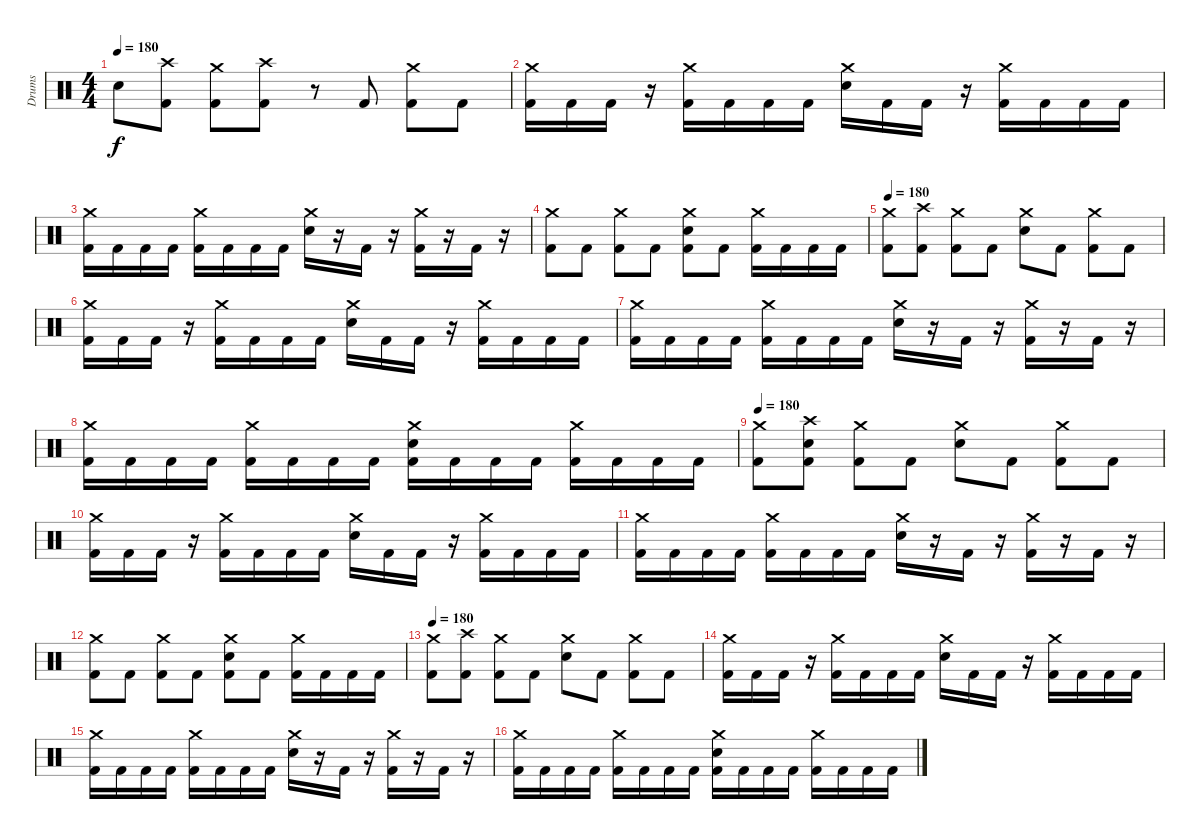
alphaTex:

\track ("Drums" "Drums") {instrument percussion}
\staff {score}
\articulation defaults
\ts (4 4)
\tempo 180
\clef neutral
\ks c "Snare (hit) 2".8{dy f}
("Crash high (hit)" "Kick (hit) 2").8 ("Crash medium (hit)" "Kick (hit) 2").8 ("Crash high (hit)" "Kick (hit) 2").8 r.8 "Kick (hit) 2".8 ("Crash medium (hit)" "Kick (hit) 2").8 "Kick (hit) 2".8 |
("Crash medium (hit)" "Kick (hit) 2").16 "Kick (hit) 2".16 "Kick (hit) 2".16 r.16 ("Crash medium (hit)" "Kick (hit) 2").16 "Kick (hit) 2".16 "Kick (hit) 2".16 "Kick (hit) 2".16 ("Crash medium (hit)" "Snare (hit) 2").16 "Kick (hit) 2".16 "Kick (hit) 2".16 r.16 ("Crash medium (hit)" "Kick (hit) 2").16 "Kick (hit) 2".16 "Kick (hit) 2".16 "Kick (hit) 2".16 |
("Crash medium (hit)" "Kick (hit) 2").16 "Kick (hit) 2".16 "Kick (hit) 2".16 "Kick (hit) 2".16 ("Crash medium (hit)" "Kick (hit) 2").16 "Kick (hit) 2".16 "Kick (hit) 2".16 "Kick (hit) 2".16 ("Crash medium (hit)" "Snare (hit) 2").16 r.16 "Kick (hit) 2".16 r.16 ("Crash medium (hit)" "Kick (hit) 2").16 r.16 "Kick (hit) 2".16 r.16 |
("Crash medium (hit)" "Kick (hit) 2").8 "Kick (hit) 2".8 ("Crash medium (hit)" "Kick (hit) 2").8 "Kick (hit) 2".8 ("Crash medium (hit)" "Snare (hit) 2" "Kick (hit) 2").8 "Kick (hit) 2".8 ("Crash medium (hit)" "Kick (hit) 2").16 "Kick (hit) 2".16 "Kick (hit) 2".16 "Kick (hit) 2".16 |
\tempo 180
("Crash medium (hit)" "Kick (hit) 2").8 ("Crash high (hit)" "Kick (hit) 2").8 ("Crash medium (hit)" "Kick (hit) 2").8 "Kick (hit) 2".8 ("Crash medium (hit)" "Snare (hit) 2").8 "Kick (hit) 2".8 ("Crash medium (hit)" "Kick (hit) 2").8 "Kick (hit) 2".8 |
("Crash medium (hit)" "Kick (hit) 2").16 "Kick (hit) 2".16 "Kick (hit) 2".16 r.16 ("Crash medium (hit)" "Kick (hit) 2").16 "Kick (hit) 2".16 "Kick (hit) 2".16 "Kick (hit) 2".16 ("Crash medium (hit)" "Snare (hit) 2").16 "Kick (hit) 2".16 "Kick (hit) 2".16 r.16 ("Crash medium (hit)" "Kick (hit) 2").16 "Kick (hit) 2".16 "Kick (hit) 2".16 "Kick (hit) 2".16 |
("Crash medium (hit)" "Kick (hit) 2").16 "Kick (hit) 2".16 "Kick (hit) 2".16 "Kick (hit) 2".16 ("Crash medium (hit)" "Kick (hit) 2").16 "Kick (hit) 2".16 "Kick (hit) 2".16 "Kick (hit) 2".16 ("Crash medium (hit)" "Snare (hit) 2").16 r.16 "Kick (hit) 2".16 r.16 ("Crash medium (hit)" "Kick (hit) 2").16 r.16 "Kick (hit) 2".16 r.16 |
("Crash medium (hit)" "Kick (hit) 2").16 "Kick (hit) 2".16 "Kick (hit) 2".16 "Kick (hit) 2".16 ("Crash medium (hit)" "Kick (hit) 2").16 "Kick (hit) 2".16 "Kick (hit) 2".16 "Kick (hit) 2".16 ("Crash medium (hit)" "Snare (hit) 2" "Kick (hit) 2").16 "Kick (hit) 2".16 "Kick (hit) 2".16 "Kick (hit) 2".16 ("Crash medium (hit)" "Kick (hit) 2").16 "Kick (hit) 2".16 "Kick (hit) 2".16 "Kick (hit) 2".16 |
\tempo 180
("Crash medium (hit)" "Kick (hit) 2").8 ("Crash high (hit)" "Snare (hit) 2" "Kick (hit) 2").8 ("Crash medium (hit)" "Kick (hit) 2").8 "Kick (hit) 2".8 ("Crash medium (hit)" "Snare (hit) 2").8 "Kick (hit) 2".8 ("Crash medium (hit)" "Kick (hit) 2").8 "Kick (hit) 2".8 |
("Crash medium (hit)" "Kick (hit) 2").16 "Kick (hit) 2".16 "Kick (hit) 2".16 r.16 ("Crash medium (hit)" "Kick (hit) 2").16 "Kick (hit) 2".16 "Kick (hit) 2".16 "Kick (hit) 2".16 ("Crash medium (hit)" "Snare (hit) 2").16 "Kick (hit) 2".16 "Kick (hit) 2".16 r.16 ("Crash medium (hit)" "Kick (hit) 2").16 "Kick (hit) 2".16 "Kick (hit) 2".16 "Kick (hit) 2".16 |
("Crash medium (hit)" "Kick (hit) 2").16 "Kick (hit) 2".16 "Kick (hit) 2".16 "Kick (hit) 2".16 ("Crash medium (hit)" "Kick (hit) 2").16 "Kick (hit) 2".16 "Kick (hit) 2".16 "Kick (hit) 2".16 ("Crash medium (hit)" "Snare (hit) 2").16 r.16 "Kick (hit) 2".16 r.16 ("Crash medium (hit)" "Kick (hit) 2").16 r.16 "Kick (hit) 2".16 r.16 |
("Crash medium (hit)" "Kick (hit) 2").8 "Kick (hit) 2".8 ("Crash medium (hit)" "Kick (hit) 2").8 "Kick (hit) 2".8 ("Crash medium (hit)" "Snare (hit) 2" "Kick (hit) 2").8 "Kick (hit) 2".8 ("Crash medium (hit)" "Kick (hit) 2").16 "Kick (hit) 2".16 "Kick (hit) 2".16 "Kick (hit) 2".16 |
\tempo 180
("Crash medium (hit)" "Kick (hit) 2").8 ("Crash high (hit)" "Kick (hit) 2").8 ("Crash medium (hit)" "Kick (hit) 2").8 "Kick (hit) 2".8 ("Crash medium (hit)" "Snare (hit) 2").8 "Kick (hit) 2".8 ("Crash medium (hit)" "Kick (hit) 2").8 "Kick (hit) 2".8 |
("Crash medium (hit)" "Kick (hit) 2").16 "Kick (hit) 2".16 "Kick (hit) 2".16 r.16 ("Crash medium (hit)" "Kick (hit) 2").16 "Kick (hit) 2".16 "Kick (hit) 2".16 "Kick (hit) 2".16 ("Crash medium (hit)" "Snare (hit) 2").16 "Kick (hit) 2".16 "Kick (hit) 2".16 r.16 ("Crash medium (hit)" "Kick (hit) 2").16 "Kick (hit) 2".16 "Kick (hit) 2".16 "Kick (hit) 2".16 |
("Crash medium (hit)" "Kick (hit) 2").16 "Kick (hit) 2".16 "Kick (hit) 2".16 "Kick (hit) 2".16 ("Crash medium (hit)" "Kick (hit) 2").16 "Kick (hit) 2".16 "Kick (hit) 2".16 "Kick (hit) 2".16 ("Crash medium (hit)" "Snare (hit) 2").16 r.16 "Kick (hit) 2".16 r.16 ("Crash medium (hit)" "Kick (hit) 2").16 r.16 "Kick (hit) 2".16 r.16 |
("Crash medium (hit)" "Kick (hit) 2").16 "Kick (hit) 2".16 "Kick (hit) 2".16 "Kick (hit) 2".16 ("Crash medium (hit)" "Kick (hit) 2").16 "Kick (hit) 2".16 "Kick (hit) 2".16 "Kick (hit) 2".16 ("Crash medium (hit)" "Snare (hit) 2" "Kick (hit) 2").16 "Kick (hit) 2".16 "Kick (hit) 2".16 "Kick (hit) 2".16 ("Crash medium (hit)" "Kick (hit) 2").16 "Kick (hit) 2".16 "Kick (hit) 2".16 "Kick (hit) 2".16
